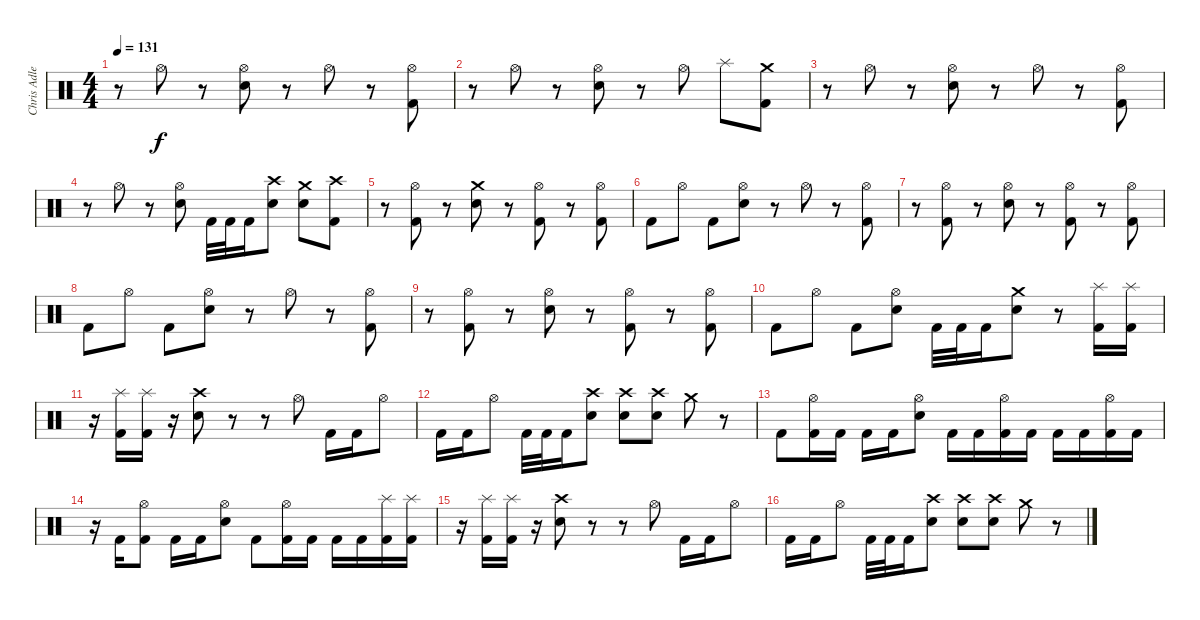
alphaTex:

\track ("Chris Adler - Drums" "Chris Adle") {instrument percussion}
\staff {score}
\articulation defaults
\ts (4 4)
\tempo 131
\clef neutral
\ks c
r.8{dy f} "Hi-Hat (open)".8 r.8 ("Hi-Hat (open)" "Snare (hit) 2").8 r.8 "Hi-Hat (open)".8 r.8 ("Hi-Hat (open)" "Kick (hit) 2").8 |
r.8 "Hi-Hat (open)".8 r.8 ("Hi-Hat (open)" "Snare (hit) 2").8 r.8 "Hi-Hat (open)".8 "Splash (hit)".8 ("Crash medium (hit)" "Kick (hit) 2").8 |
r.8 "Hi-Hat (open)".8 r.8 ("Hi-Hat (open)" "Snare (hit) 2").8 r.8 "Hi-Hat (open)".8 r.8 ("Hi-Hat (open)" "Kick (hit) 2").8 |
r.8 "Hi-Hat (open)".8 r.8 ("Hi-Hat (open)" "Snare (hit) 2").8 "Kick (hit) 2".32 "Kick (hit) 2".32 "Kick (hit) 2".16 ("Crash high (hit)" "Snare (hit) 2").8 ("Crash medium (hit)" "Snare (hit) 2").8 ("Crash high (hit)" "Kick (hit) 2").8 |
r.8 ("Hi-Hat (open)" "Kick (hit) 2").8 r.8 ("Crash medium (hit)" "Snare (hit) 2").8 r.8 ("Hi-Hat (open)" "Kick (hit) 2").8 r.8 ("Hi-Hat (open)" "Kick (hit) 2").8 |
"Kick (hit) 2".8 "Hi-Hat (open)".8 "Kick (hit) 2".8 ("Hi-Hat (open)" "Snare (hit) 2").8 r.8 "Hi-Hat (open)".8 r.8 ("Hi-Hat (open)" "Kick (hit) 2").8 |
r.8 ("Hi-Hat (open)" "Kick (hit) 2").8 r.8 ("Hi-Hat (open)" "Snare (hit) 2").8 r.8 ("Hi-Hat (open)" "Kick (hit) 2").8 r.8 ("Hi-Hat (open)" "Kick (hit) 2").8 |
"Kick (hit) 2".8 "Hi-Hat (open)".8 "Kick (hit) 2".8 ("Hi-Hat (open)" "Snare (hit) 2").8 r.8 "Hi-Hat (open)".8 r.8 ("Hi-Hat (open)" "Kick (hit) 2").8 |
r.8 ("Hi-Hat (open)" "Kick (hit) 2").8 r.8 ("Hi-Hat (open)" "Snare (hit) 2").8 r.8 ("Hi-Hat (open)" "Kick (hit) 2").8 r.8 ("Hi-Hat (open)" "Kick (hit) 2").8 |
"Kick (hit) 2".8 "Hi-Hat (open)".8 "Kick (hit) 2".8 ("Hi-Hat (open)" "Snare (hit) 2").8 "Kick (hit) 2".32 "Kick (hit) 2".32 "Kick (hit) 2".16 ("Crash medium (hit)" "Snare (hit) 2").8 r.8 ("Splash (hit)" "Kick (hit) 2").16 ("Splash (hit)" "Kick (hit) 2").16 |
r.16 ("Splash (hit)" "Kick (hit) 2").16 ("Splash (hit)" "Kick (hit) 2").16 r.16 ("Crash high (hit)" "Snare (hit) 2").8 r.8 r.8 "Hi-Hat (open)".8 "Kick (hit) 2".16 "Kick (hit) 2".16 "Hi-Hat (open)".8 |
"Kick (hit) 2".16 "Kick (hit) 2".16 "Hi-Hat (open)".8 "Kick (hit) 2".32 "Kick (hit) 2".32 "Kick (hit) 2".16 ("Crash high (hit)" "Snare (hit) 2").8 ("Crash high (hit)" "Snare (hit) 2").8 ("Crash high (hit)" "Snare (hit) 2").8 "Crash medium (hit)".8 r.8 |
"Kick (hit) 2".8 ("Hi-Hat (open)" "Kick (hit) 2").16 "Kick (hit) 2".16 "Kick (hit) 2".16 "Kick (hit) 2".16 ("Hi-Hat (open)" "Snare (hit) 2").8 "Kick (hit) 2".16 "Kick (hit) 2".16 ("Hi-Hat (open)" "Kick (hit) 2").16 "Kick (hit) 2".16 "Kick (hit) 2".16 "Kick (hit) 2".16 ("Hi-Hat (open)" "Kick (hit) 2").16 "Kick (hit) 2".16 |
r.16 "Kick (hit) 2".16 ("Hi-Hat (open)" "Kick (hit) 2").8 "Kick (hit) 2".16 "Kick (hit) 2".16 ("Hi-Hat (open)" "Snare (hit) 2").8 "Kick (hit) 2".8 ("Hi-Hat (open)" "Kick (hit) 2").16 "Kick (hit) 2".16 "Kick (hit) 2".16 "Kick (hit) 2".16 ("Splash (hit)" "Kick (hit) 2").16 ("Splash (hit)" "Kick (hit) 2").16 |
r.16 ("Splash (hit)" "Kick (hit) 2").16 ("Splash (hit)" "Kick (hit) 2").16 r.16 ("Crash high (hit)" "Snare (hit) 2").8 r.8 r.8 "Hi-Hat (open)".8 "Kick (hit) 2".16 "Kick (hit) 2".16 "Hi-Hat (open)".8 |
"Kick (hit) 2".16 "Kick (hit) 2".16 "Hi-Hat (open)".8 "Kick (hit) 2".32 "Kick (hit) 2".32 "Kick (hit) 2".16 ("Crash high (hit)" "Snare (hit) 2").8 ("Crash high (hit)" "Snare (hit) 2").8 ("Crash high (hit)" "Snare (hit) 2").8 "Crash medium (hit)".8 r.8
